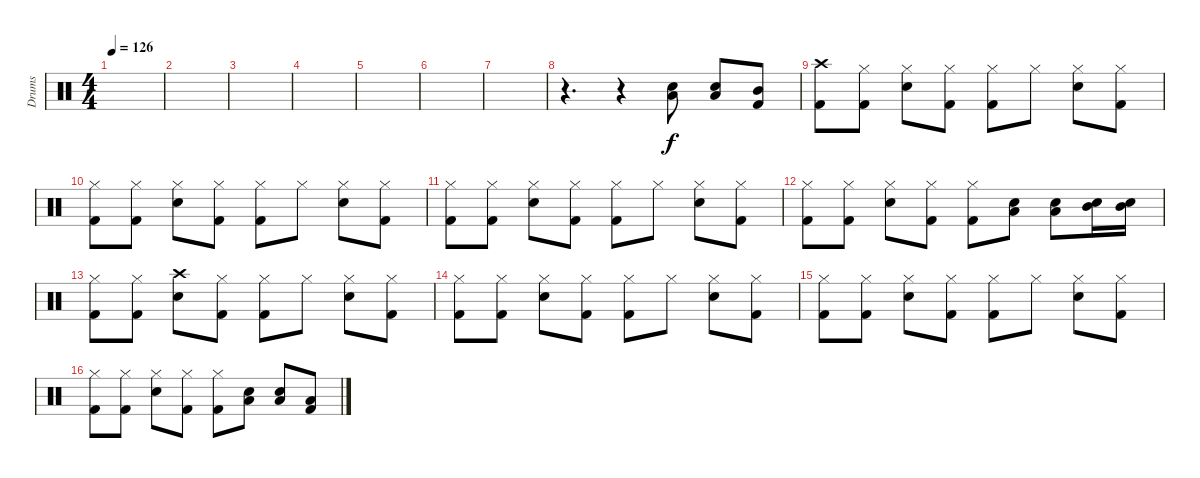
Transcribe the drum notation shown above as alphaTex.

\track ("Drums" "Drums") {instrument percussion}
\staff {score}
\articulation defaults
\ts (4 4)
\tempo 126
\clef neutral
\ks c
|
|
|
|
|
|
|
r.4{d} r.4 ("Low Tom (hit)" "Snare (hit) 2").8 ("Low Tom (hit)" "Snare (hit) 2").8 ("Mid Tom (hit)" "Kick (hit) 2").8 |
("Crash high (hit)" "Kick (hit) 2").8 ("Hi-Hat (closed)" "Kick (hit) 2").8 ("Hi-Hat (closed)" "Snare (hit) 2").8 ("Hi-Hat (closed)" "Kick (hit) 2").8 ("Hi-Hat (closed)" "Kick (hit) 2").8 "Hi-Hat (closed)".8 ("Hi-Hat (closed)" "Snare (hit) 2").8 ("Hi-Hat (closed)" "Kick (hit) 2").8 |
("Hi-Hat (closed)" "Kick (hit) 2").8 ("Hi-Hat (closed)" "Kick (hit) 2").8 ("Hi-Hat (closed)" "Snare (hit) 2").8 ("Hi-Hat (closed)" "Kick (hit) 2").8 ("Hi-Hat (closed)" "Kick (hit) 2").8 "Hi-Hat (closed)".8 ("Hi-Hat (closed)" "Snare (hit) 2").8 ("Hi-Hat (closed)" "Kick (hit) 2").8 |
("Hi-Hat (closed)" "Kick (hit) 2").8 ("Hi-Hat (closed)" "Kick (hit) 2").8 ("Hi-Hat (closed)" "Snare (hit) 2").8 ("Hi-Hat (closed)" "Kick (hit) 2").8 ("Hi-Hat (closed)" "Kick (hit) 2").8 "Hi-Hat (closed)".8 ("Hi-Hat (closed)" "Snare (hit) 2").8 ("Hi-Hat (closed)" "Kick (hit) 2").8 |
("Hi-Hat (closed)" "Kick (hit) 2").8 ("Hi-Hat (closed)" "Kick (hit) 2").8 ("Hi-Hat (closed)" "Snare (hit) 2").8 ("Hi-Hat (closed)" "Kick (hit) 2").8 ("Hi-Hat (closed)" "Kick (hit) 2").8 ("Low Tom (hit)" "Snare (hit) 2").8 ("Low Tom (hit)" "Snare (hit) 2").8 ("Mid Tom (hit)" "Snare (hit) 2").16 ("Mid Tom (hit)" "Snare (hit) 2").16 |
("Hi-Hat (closed)" "Kick (hit) 2").8 ("Hi-Hat (closed)" "Kick (hit) 2").8 ("Crash high (hit)" "Snare (hit) 2").8 ("Hi-Hat (closed)" "Kick (hit) 2").8 ("Hi-Hat (closed)" "Kick (hit) 2").8 "Hi-Hat (closed)".8 ("Hi-Hat (closed)" "Snare (hit) 2").8 ("Hi-Hat (closed)" "Kick (hit) 2").8 |
("Hi-Hat (closed)" "Kick (hit) 2").8 ("Hi-Hat (closed)" "Kick (hit) 2").8 ("Hi-Hat (closed)" "Snare (hit) 2").8 ("Hi-Hat (closed)" "Kick (hit) 2").8 ("Hi-Hat (closed)" "Kick (hit) 2").8 "Hi-Hat (closed)".8 ("Hi-Hat (closed)" "Snare (hit) 2").8 ("Hi-Hat (closed)" "Kick (hit) 2").8 |
("Hi-Hat (closed)" "Kick (hit) 2").8 ("Hi-Hat (closed)" "Kick (hit) 2").8 ("Hi-Hat (closed)" "Snare (hit) 2").8 ("Hi-Hat (closed)" "Kick (hit) 2").8 ("Hi-Hat (closed)" "Kick (hit) 2").8 "Hi-Hat (closed)".8 ("Hi-Hat (closed)" "Snare (hit) 2").8 ("Hi-Hat (closed)" "Kick (hit) 2").8 |
("Hi-Hat (closed)" "Kick (hit) 2").8 ("Hi-Hat (closed)" "Kick (hit) 2").8 ("Hi-Hat (closed)" "Snare (hit) 2").8 ("Hi-Hat (closed)" "Kick (hit) 2").8 ("Hi-Hat (closed)" "Kick (hit) 2").8 ("Low Tom (hit)" "Snare (hit) 2").8 ("Low Tom (hit)" "Snare (hit) 2").8 ("Low Tom (hit)" "Kick (hit) 2").8
